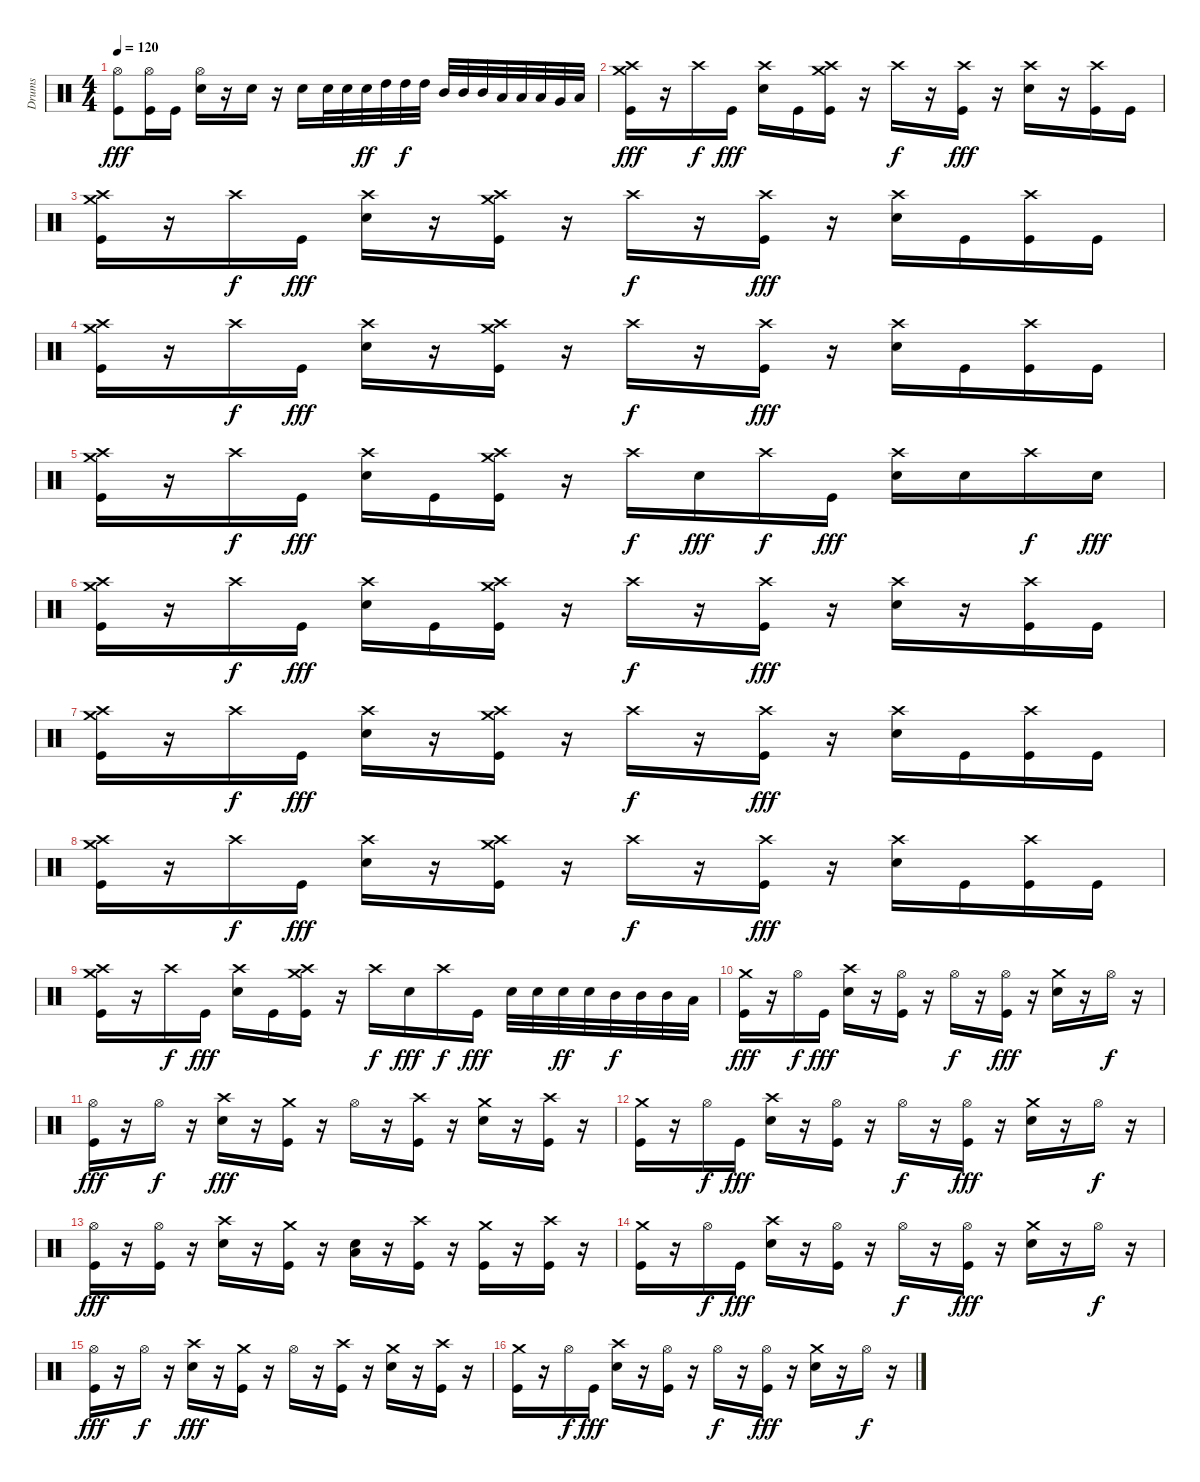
\track ("Drums" "Drums") {instrument percussion}
\staff {score}
\articulation defaults
\ts (4 4)
\tempo 120
\clef neutral
\ks c
("Kick (hit)" "Hi-Hat (open)").8{dy fff} ("Kick (hit)" "Hi-Hat (open)").16 "Kick (hit)".16 ("Electric Snare (hit)" "Hi-Hat (open)").16 r.16 "Electric Snare (hit)".16 r.16 "Electric Snare (hit)".16 "Electric Snare (hit)".32 "Electric Snare (hit)".32 "Electric Snare (hit)".32{dy ff} "High Tom (hit)".32 "High Tom (hit)".32{dy f} "High Tom (hit)".32 "Mid Tom (hit)".32 "Mid Tom (hit)".32 "Mid Tom (hit)".32 "Low Tom (hit)".32 "Low Tom (hit)".32 "Low Tom (hit)".32 "Very Low Tom (hit)".32 "Low Floor Tom (hit)".32 |
("Crash medium (hit)" "Crash high (hit)" "Kick (hit)").16{dy fff} r.16 "Crash high (hit)".16{dy f} "Kick (hit)".16{dy fff} ("Crash high (hit)" "Electric Snare (hit)").16 "Kick (hit)".16 ("Crash medium (hit)" "Crash high (hit)" "Kick (hit)").16 r.16 "Crash high (hit)".16{dy f} r.16 ("Crash high (hit)" "Kick (hit)").16{dy fff} r.16 ("Crash high (hit)" "Electric Snare (hit)").16 r.16 ("Crash high (hit)" "Kick (hit)").16 "Kick (hit)".16 |
("Crash medium (hit)" "Crash high (hit)" "Kick (hit)").16 r.16 "Crash high (hit)".16{dy f} "Kick (hit)".16{dy fff} ("Crash high (hit)" "Electric Snare (hit)").16 r.16 ("Crash medium (hit)" "Crash high (hit)" "Kick (hit)").16 r.16 "Crash high (hit)".16{dy f} r.16 ("Crash high (hit)" "Kick (hit)").16{dy fff} r.16 ("Crash high (hit)" "Electric Snare (hit)").16 "Kick (hit)".16 ("Crash high (hit)" "Kick (hit)").16 "Kick (hit)".16 |
("Crash medium (hit)" "Crash high (hit)" "Kick (hit)").16 r.16 "Crash high (hit)".16{dy f} "Kick (hit)".16{dy fff} ("Crash high (hit)" "Electric Snare (hit)").16 r.16 ("Crash medium (hit)" "Crash high (hit)" "Kick (hit)").16 r.16 "Crash high (hit)".16{dy f} r.16 ("Crash high (hit)" "Kick (hit)").16{dy fff} r.16 ("Crash high (hit)" "Electric Snare (hit)").16 "Kick (hit)".16 ("Crash high (hit)" "Kick (hit)").16 "Kick (hit)".16 |
("Crash medium (hit)" "Crash high (hit)" "Kick (hit)").16 r.16 "Crash high (hit)".16{dy f} "Kick (hit)".16{dy fff} ("Crash high (hit)" "Electric Snare (hit)").16 "Kick (hit)".16 ("Crash medium (hit)" "Crash high (hit)" "Kick (hit)").16 r.16 "Crash high (hit)".16{dy f} "Electric Snare (hit)".16{dy fff} "Crash high (hit)".16{dy f} "Kick (hit)".16{dy fff} ("Crash high (hit)" "Electric Snare (hit)").16 "Electric Snare (hit)".16 "Crash high (hit)".16{dy f} "Electric Snare (hit)".16{dy fff} |
("Crash medium (hit)" "Crash high (hit)" "Kick (hit)").16 r.16 "Crash high (hit)".16{dy f} "Kick (hit)".16{dy fff} ("Crash high (hit)" "Electric Snare (hit)").16 "Kick (hit)".16 ("Crash medium (hit)" "Crash high (hit)" "Kick (hit)").16 r.16 "Crash high (hit)".16{dy f} r.16 ("Crash high (hit)" "Kick (hit)").16{dy fff} r.16 ("Crash high (hit)" "Electric Snare (hit)").16 r.16 ("Crash high (hit)" "Kick (hit)").16 "Kick (hit)".16 |
("Crash medium (hit)" "Crash high (hit)" "Kick (hit)").16 r.16 "Crash high (hit)".16{dy f} "Kick (hit)".16{dy fff} ("Crash high (hit)" "Electric Snare (hit)").16 r.16 ("Crash medium (hit)" "Crash high (hit)" "Kick (hit)").16 r.16 "Crash high (hit)".16{dy f} r.16 ("Crash high (hit)" "Kick (hit)").16{dy fff} r.16 ("Crash high (hit)" "Electric Snare (hit)").16 "Kick (hit)".16 ("Crash high (hit)" "Kick (hit)").16 "Kick (hit)".16 |
("Crash medium (hit)" "Crash high (hit)" "Kick (hit)").16 r.16 "Crash high (hit)".16{dy f} "Kick (hit)".16{dy fff} ("Crash high (hit)" "Electric Snare (hit)").16 r.16 ("Crash medium (hit)" "Crash high (hit)" "Kick (hit)").16 r.16 "Crash high (hit)".16{dy f} r.16 ("Crash high (hit)" "Kick (hit)").16{dy fff} r.16 ("Crash high (hit)" "Electric Snare (hit)").16 "Kick (hit)".16 ("Crash high (hit)" "Kick (hit)").16 "Kick (hit)".16 |
("Crash medium (hit)" "Crash high (hit)" "Kick (hit)").16 r.16 "Crash high (hit)".16{dy f} "Kick (hit)".16{dy fff} ("Crash high (hit)" "Electric Snare (hit)").16 "Kick (hit)".16 ("Crash medium (hit)" "Crash high (hit)" "Kick (hit)").16 r.16 "Crash high (hit)".16{dy f} "Electric Snare (hit)".16{dy fff} "Crash high (hit)".16{dy f} "Kick (hit)".16{dy fff} "Electric Snare (hit)".32 "Electric Snare (hit)".32 "Electric Snare (hit)".32{dy ff} "Electric Snare (hit)".32 "Mid Tom (hit)".32{dy f} "Mid Tom (hit)".32 "Mid Tom (hit)".32 "Low Tom (hit)".32 |
("Crash medium (hit)" "Kick (hit)").16{dy fff} r.16 "Hi-Hat (open)".16{dy f} "Kick (hit)".16{dy fff} ("Crash high (hit)" "Electric Snare (hit)").16 r.16 ("Hi-Hat (open)" "Kick (hit)").16 r.16 "Hi-Hat (open)".16{dy f} r.16 ("Hi-Hat (open)" "Kick (hit)").16{dy fff} r.16 ("Crash medium (hit)" "Electric Snare (hit)").16 r.16 "Hi-Hat (open)".16{dy f} r.16 |
("Hi-Hat (open)" "Kick (hit)").16{dy fff} r.16 "Hi-Hat (open)".16{dy f} r.16 ("Crash high (hit)" "Electric Snare (hit)").16{dy fff} r.16 ("Crash medium (hit)" "Kick (hit)").16 r.16 "Hi-Hat (open)".16 r.16 ("Kick (hit)" "Crash high (hit)").16 r.16 ("Crash medium (hit)" "Electric Snare (hit)").16 r.16 ("Kick (hit)" "Crash high (hit)").16 r.16 |
("Crash medium (hit)" "Kick (hit)").16 r.16 "Hi-Hat (open)".16{dy f} "Kick (hit)".16{dy fff} ("Crash high (hit)" "Electric Snare (hit)").16 r.16 ("Hi-Hat (open)" "Kick (hit)").16 r.16 "Hi-Hat (open)".16{dy f} r.16 ("Hi-Hat (open)" "Kick (hit)").16{dy fff} r.16 ("Crash medium (hit)" "Electric Snare (hit)").16 r.16 "Hi-Hat (open)".16{dy f} r.16 |
("Hi-Hat (open)" "Kick (hit)").16{dy fff} r.16 ("Hi-Hat (open)" "Kick (hit)").16 r.16 ("Crash high (hit)" "Electric Snare (hit)").16 r.16 ("Crash medium (hit)" "Kick (hit)").16 r.16 ("Electric Snare (hit)" "Low Floor Tom (hit)").16 r.16 ("Kick (hit)" "Crash high (hit)").16 r.16 ("Crash medium (hit)" "Kick (hit)").16 r.16 ("Kick (hit)" "Crash high (hit)").16 r.16 |
("Crash medium (hit)" "Kick (hit)").16 r.16 "Hi-Hat (open)".16{dy f} "Kick (hit)".16{dy fff} ("Crash high (hit)" "Electric Snare (hit)").16 r.16 ("Hi-Hat (open)" "Kick (hit)").16 r.16 "Hi-Hat (open)".16{dy f} r.16 ("Hi-Hat (open)" "Kick (hit)").16{dy fff} r.16 ("Crash medium (hit)" "Electric Snare (hit)").16 r.16 "Hi-Hat (open)".16{dy f} r.16 |
("Hi-Hat (open)" "Kick (hit)").16{dy fff} r.16 "Hi-Hat (open)".16{dy f} r.16 ("Crash high (hit)" "Electric Snare (hit)").16{dy fff} r.16 ("Crash medium (hit)" "Kick (hit)").16 r.16 "Hi-Hat (open)".16 r.16 ("Kick (hit)" "Crash high (hit)").16 r.16 ("Crash medium (hit)" "Electric Snare (hit)").16 r.16 ("Kick (hit)" "Crash high (hit)").16 r.16 |
("Crash medium (hit)" "Kick (hit)").16 r.16 "Hi-Hat (open)".16{dy f} "Kick (hit)".16{dy fff} ("Crash high (hit)" "Electric Snare (hit)").16 r.16 ("Hi-Hat (open)" "Kick (hit)").16 r.16 "Hi-Hat (open)".16{dy f} r.16 ("Hi-Hat (open)" "Kick (hit)").16{dy fff} r.16 ("Crash medium (hit)" "Electric Snare (hit)").16 r.16 "Hi-Hat (open)".16{dy f} r.16
